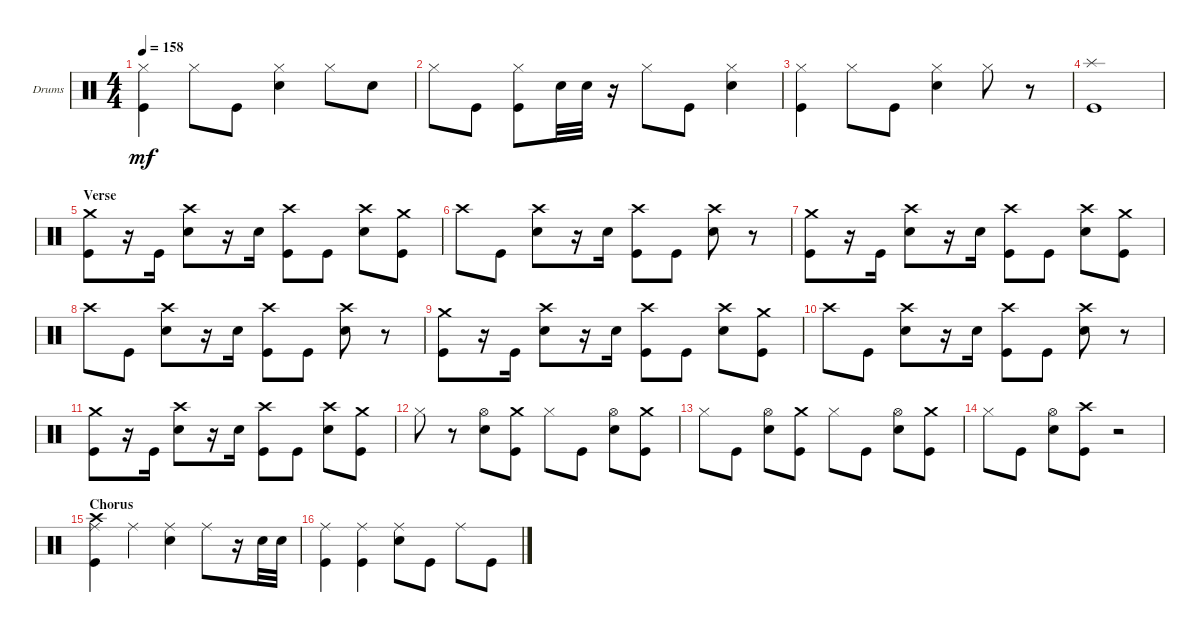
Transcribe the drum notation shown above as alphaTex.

\defaultSystemsLayout 4
\bracketExtendMode groupsimilarinstruments
\firstSystemTrackNameOrientation horizontal
\otherSystemsTrackNameOrientation horizontal
\track ("Drumkit" "Drums") {instrument percussion}
\staff {score}
\articulation defaults
\ts (4 4)
\tempo 158
\clef neutral
\ks c
("Hi-Hat (closed)" "Kick (hit)").4{dy mf} "Hi-Hat (closed)".8 "Kick (hit)".8 ("Hi-Hat (closed)" "Snare (hit) 2").4 "Hi-Hat (closed)".8 "Snare (hit) 2".8 |
"Hi-Hat (closed)".8 "Kick (hit)".8 ("Kick (hit)" "Hi-Hat (closed)").8 "Snare (hit) 2".32 "Snare (hit) 2".32 r.16 "Hi-Hat (closed)".8 "Kick (hit)".8 ("Hi-Hat (closed)" "Snare (hit) 2").4 |
("Hi-Hat (closed)" "Kick (hit)").4 "Hi-Hat (closed)".8 "Kick (hit)".8 ("Hi-Hat (closed)" "Snare (hit) 2").4 "Hi-Hat (closed)".8 r.8 |
("Kick (hit)" "Splash (hit)").1 |
\section ("" "Verse")
("Crash medium (hit)" "Kick (hit)").8 r.16 "Kick (hit)".16 ("Snare (hit) 2" "Crash high (hit)").8 r.16 "Snare (hit) 2".16 ("Crash high (hit)" "Kick (hit)").8 "Kick (hit)".8 ("Snare (hit) 2" "Crash high (hit)").8 ("Crash medium (hit)" "Kick (hit)").8 |
"Crash high (hit)".8 "Kick (hit)".8 ("Snare (hit) 2" "Crash high (hit)").8 r.16 "Snare (hit) 2".16 ("Crash high (hit)" "Kick (hit)").8 "Kick (hit)".8 ("Snare (hit) 2" "Crash high (hit)").8 r.8 |
("Crash medium (hit)" "Kick (hit)").8 r.16 "Kick (hit)".16 ("Snare (hit) 2" "Crash high (hit)").8 r.16 "Snare (hit) 2".16 ("Crash high (hit)" "Kick (hit)").8 "Kick (hit)".8 ("Snare (hit) 2" "Crash high (hit)").8 ("Crash medium (hit)" "Kick (hit)").8 |
"Crash high (hit)".8 "Kick (hit)".8 ("Snare (hit) 2" "Crash high (hit)").8 r.16 "Snare (hit) 2".16 ("Crash high (hit)" "Kick (hit)").8 "Kick (hit)".8 ("Snare (hit) 2" "Crash high (hit)").8 r.8 |
("Crash medium (hit)" "Kick (hit)").8 r.16 "Kick (hit)".16 ("Snare (hit) 2" "Crash high (hit)").8 r.16 "Snare (hit) 2".16 ("Crash high (hit)" "Kick (hit)").8 "Kick (hit)".8 ("Snare (hit) 2" "Crash high (hit)").8 ("Crash medium (hit)" "Kick (hit)").8 |
"Crash high (hit)".8 "Kick (hit)".8 ("Snare (hit) 2" "Crash high (hit)").8 r.16 "Snare (hit) 2".16 ("Crash high (hit)" "Kick (hit)").8 "Kick (hit)".8 ("Snare (hit) 2" "Crash high (hit)").8 r.8 |
("Crash medium (hit)" "Kick (hit)").8 r.16 "Kick (hit)".16 ("Snare (hit) 2" "Crash high (hit)").8 r.16 "Snare (hit) 2".16 ("Crash high (hit)" "Kick (hit)").8 "Kick (hit)".8 ("Snare (hit) 2" "Crash high (hit)").8 ("Crash medium (hit)" "Kick (hit)").8 |
"Hi-Hat (closed)".8 r.8 ("Hi-Hat (open)" "Snare (hit) 2").8 ("Crash medium (hit)" "Kick (hit)").8 "Hi-Hat (closed)".8 "Kick (hit)".8 ("Hi-Hat (open)" "Snare (hit) 2").8 ("Crash medium (hit)" "Kick (hit)").8 |
"Hi-Hat (closed)".8 "Kick (hit)".8 ("Hi-Hat (open)" "Snare (hit) 2").8 ("Crash medium (hit)" "Kick (hit)").8 "Hi-Hat (closed)".8 "Kick (hit)".8 ("Hi-Hat (open)" "Snare (hit) 2").8 ("Crash medium (hit)" "Kick (hit)").8 |
"Hi-Hat (closed)".8 "Kick (hit)".8 ("Hi-Hat (open)" "Snare (hit) 2").8 ("Kick (hit)" "Crash high (hit)").8 r.2 |
\section ("" "Chorus")
("Crash high (hit)" "Kick (hit)" "Ride (middle)").4 "Ride (middle)".4 ("Ride (middle)" "Snare (hit) 2").4 "Ride (middle)".8 r.16 "Snare (hit) 2".32 "Snare (hit) 2".32 |
("Kick (hit)" "Ride (middle)").4 ("Ride (middle)" "Kick (hit)").4 ("Ride (middle)" "Snare (hit) 2").8 "Kick (hit)".8 "Ride (middle)".8 "Kick (hit)".8
